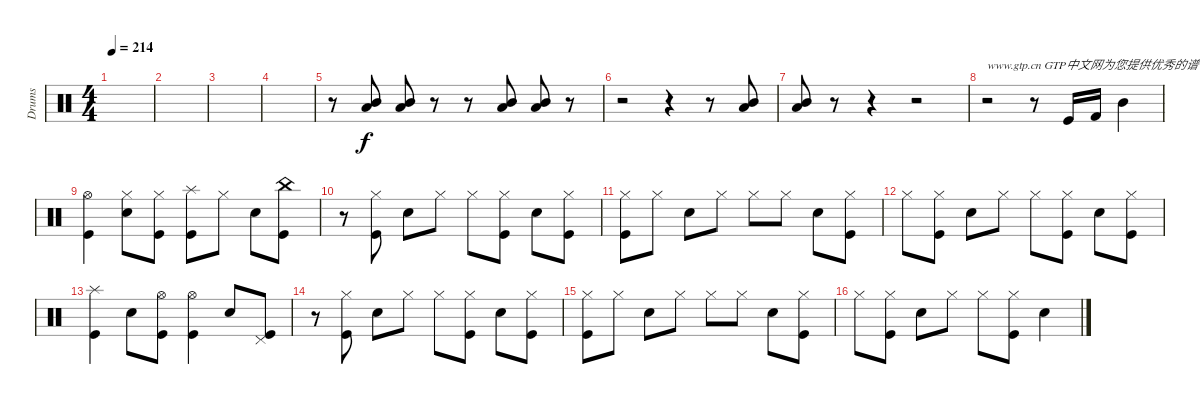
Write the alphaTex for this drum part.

\track ("Drums" "Drums") {instrument percussion}
\staff {score}
\articulation defaults
\ts (4 4)
\tempo 214
\clef neutral
\ks c
|
|
|
|
r.8 ("Mid Tom (hit)" "Low Tom (hit)").8 ("Mid Tom (hit)" "Low Tom (hit)").8 r.8 r.8 ("Mid Tom (hit)" "Low Tom (hit)").8 ("Mid Tom (hit)" "Low Tom (hit)").8 r.8 |
r.2 r.4 r.8 ("Mid Tom (hit)" "Low Tom (hit)").8 |
("Low Tom (hit)" "Mid Tom (hit)").8 r.8 r.4 r.2 |
r.2{txt "www.gtp.cn GTP中文网为您提供优秀的谱子"} r.8 "Kick (hit)".16 "Kick (hit) 2".16 "Mid Tom (hit)".4 |
("Hi-Hat (open)" "Kick (hit)").4 ("Hi-Hat (closed)" "Snare (hit) 2").8 ("Hi-Hat (closed)" "Kick (hit)").8 ("Splash (hit)" "Kick (hit)").8 "Hi-Hat (closed)".8 "Snare (hit) 2".8 ("China (hit)" "Kick (hit)").8 |
r.8 ("Hi-Hat (closed)" "Kick (hit)").8 "Snare (hit) 2".8 "Hi-Hat (closed)".8 "Hi-Hat (closed)".8 ("Hi-Hat (closed)" "Kick (hit)").8 "Snare (hit) 2".8 ("Hi-Hat (closed)" "Kick (hit)").8 |
("Hi-Hat (closed)" "Kick (hit)").8 "Hi-Hat (closed)".8 "Snare (hit) 2".8 "Hi-Hat (closed)".8 "Hi-Hat (closed)".8 "Hi-Hat (closed)".8 "Snare (hit) 2".8 ("Hi-Hat (closed)" "Kick (hit)").8 |
"Hi-Hat (closed)".8 ("Hi-Hat (closed)" "Kick (hit)").8 "Snare (hit) 2".8 "Hi-Hat (closed)".8 "Hi-Hat (closed)".8 ("Hi-Hat (closed)" "Kick (hit)").8 "Snare (hit) 2".8 ("Hi-Hat (closed)" "Kick (hit)").8 |
("Splash (hit)" "Kick (hit)").4 "Snare (hit) 2".8 ("Hi-Hat (open)" "Kick (hit)").8 ("Hi-Hat (open)" "Kick (hit)").4 "Snare (hit) 2".8 ("Pedal Hi-Hat (hit)" "Kick (hit)").8 |
r.8 ("Hi-Hat (closed)" "Kick (hit)").8 "Snare (hit) 2".8 "Hi-Hat (closed)".8 "Hi-Hat (closed)".8 ("Hi-Hat (closed)" "Kick (hit)").8 "Snare (hit) 2".8 ("Hi-Hat (closed)" "Kick (hit)").8 |
("Hi-Hat (closed)" "Kick (hit)").8 "Hi-Hat (closed)".8 "Snare (hit) 2".8 "Hi-Hat (closed)".8 "Hi-Hat (closed)".8 "Hi-Hat (closed)".8 "Snare (hit) 2".8 ("Hi-Hat (closed)" "Kick (hit)").8 |
"Hi-Hat (closed)".8 ("Hi-Hat (closed)" "Kick (hit)").8 "Snare (hit) 2".8 "Hi-Hat (closed)".8 "Hi-Hat (closed)".8 ("Hi-Hat (closed)" "Kick (hit)").8 "Snare (hit) 2".4
